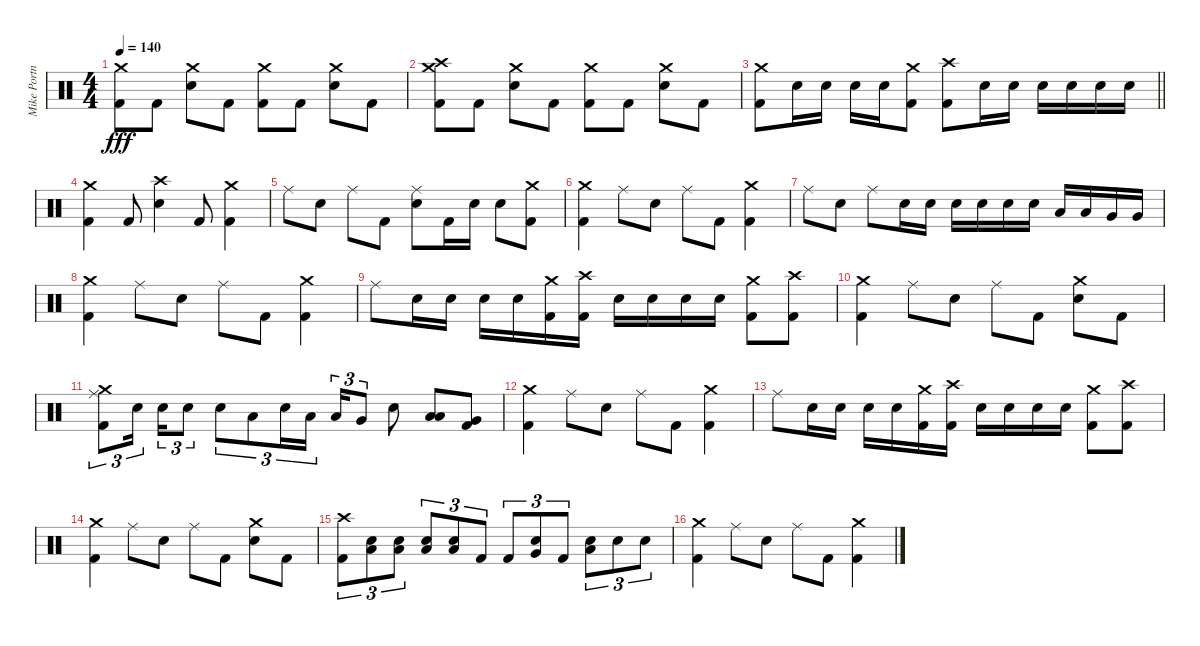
\track ("Mike Portnoy" "Mike Portn") {instrument percussion}
\staff {score}
\articulation defaults
\ts (4 4)
\tempo 140
\clef neutral
\ks c
("Crash medium (hit)" "Kick (hit) 2").8{dy fff} "Kick (hit) 2".8 ("Crash medium (hit)" "Electric Snare (hit)").8 "Kick (hit) 2".8 ("Crash medium (hit)" "Kick (hit) 2").8 "Kick (hit) 2".8 ("Crash medium (hit)" "Electric Snare (hit)").8 "Kick (hit) 2".8 |
("Crash high (hit)" "Crash medium (hit)" "Kick (hit) 2").8 "Kick (hit) 2".8 ("Crash medium (hit)" "Electric Snare (hit)").8 "Kick (hit) 2".8 ("Crash medium (hit)" "Kick (hit) 2").8 "Kick (hit) 2".8 ("Crash medium (hit)" "Electric Snare (hit)").8 "Kick (hit) 2".8 |
\barLineRight lightlight
("Crash medium (hit)" "Kick (hit) 2").8 "Electric Snare (hit)".16 "Electric Snare (hit)".16 "Electric Snare (hit)".16 "Electric Snare (hit)".16 ("Crash medium (hit)" "Kick (hit) 2").8 ("Crash high (hit)" "Kick (hit) 2").8 "Electric Snare (hit)".16 "Electric Snare (hit)".16 "Electric Snare (hit)".16 "Electric Snare (hit)".16 "Electric Snare (hit)".16 "Electric Snare (hit)".16 |
("Crash medium (hit)" "Kick (hit) 2").4 "Kick (hit) 2".8 ("Crash high (hit)" "Electric Snare (hit)").4 "Kick (hit) 2".8 ("Crash medium (hit)" "Kick (hit) 2").4 |
"Ride (middle)".8 "Electric Snare (hit)".8 "Ride (middle)".8 "Kick (hit) 2".8 ("Ride (middle)" "Electric Snare (hit)").8 "Kick (hit) 2".16 "Electric Snare (hit)".16 "Electric Snare (hit)".8 ("Crash medium (hit)" "Kick (hit) 2").8 |
("Crash medium (hit)" "Kick (hit) 2").4 "Ride (middle)".8 "Electric Snare (hit)".8 "Ride (middle)".8 "Kick (hit) 2".8 ("Crash medium (hit)" "Kick (hit) 2").4 |
"Ride (middle)".8 "Electric Snare (hit)".8 "Ride (middle)".8 "Electric Snare (hit)".16 "Electric Snare (hit)".16 "Electric Snare (hit)".16 "Electric Snare (hit)".16 "Electric Snare (hit)".16 "Electric Snare (hit)".16 "Low Tom (hit)".16 "Low Tom (hit)".16 "Very Low Tom (hit)".16 "Very Low Tom (hit)".16 |
("Crash medium (hit)" "Kick (hit) 2").4 "Ride (middle)".8 "Electric Snare (hit)".8 "Ride (middle)".8 "Kick (hit) 2".8 ("Crash medium (hit)" "Kick (hit) 2").4 |
"Ride (middle)".8 "Electric Snare (hit)".16 "Electric Snare (hit)".16 "Electric Snare (hit)".16 "Electric Snare (hit)".16 ("Crash medium (hit)" "Kick (hit) 2").16 ("Crash high (hit)" "Kick (hit) 2").16 "Electric Snare (hit)".16 "Electric Snare (hit)".16 "Electric Snare (hit)".16 "Electric Snare (hit)".16 ("Crash medium (hit)" "Kick (hit) 2").8 ("Crash high (hit)" "Kick (hit) 2").8 |
("Crash medium (hit)" "Kick (hit) 2").4 "Ride (middle)".8 "Electric Snare (hit)".8 "Ride (middle)".8 "Kick (hit) 2".8 ("Crash medium (hit)" "Electric Snare (hit)").8 "Kick (hit) 2".8 |
("Crash medium (hit)" "Ride (middle)" "Kick (hit) 2").8{tu (3 2)} "Electric Snare (hit)".16{tu (3 2) beam splitsecondary} "Electric Snare (hit)".16{tu (3 2)} "Electric Snare (hit)".8{tu (3 2)} "Electric Snare (hit)".8{tu (3 2)} "Low Tom (hit)".8{tu (3 2)} "Electric Snare (hit)".16{tu (3 2)} "Low Tom (hit)".16{tu (3 2)} "Low Tom (hit)".16{tu (3 2)} "Very Low Tom (hit)".8{tu (3 2)} "Electric Snare (hit)".8 ("Low Tom (hit)" "Low Floor Tom (hit)").8 ("Very Low Tom (hit)" "Kick (hit) 2").8 |
("Crash medium (hit)" "Kick (hit) 2").4 "Ride (middle)".8 "Electric Snare (hit)".8 "Ride (middle)".8 "Kick (hit) 2".8 ("Crash medium (hit)" "Kick (hit) 2").4 |
"Ride (middle)".8 "Electric Snare (hit)".16 "Electric Snare (hit)".16 "Electric Snare (hit)".16 "Electric Snare (hit)".16 ("Crash medium (hit)" "Kick (hit) 2").16 ("Crash high (hit)" "Kick (hit) 2").16 "Electric Snare (hit)".16 "Electric Snare (hit)".16 "Electric Snare (hit)".16 "Electric Snare (hit)".16 ("Crash medium (hit)" "Kick (hit) 2").8 ("Crash high (hit)" "Kick (hit) 2").8 |
("Crash medium (hit)" "Kick (hit) 2").4 "Ride (middle)".8 "Electric Snare (hit)".8 "Ride (middle)".8 "Kick (hit) 2".8 ("Crash medium (hit)" "Electric Snare (hit)").8 "Kick (hit) 2".8 |
("Crash high (hit)" "Kick (hit) 2").8{tu (3 2)} ("Low Floor Tom (hit)" "Electric Snare (hit)").8{tu (3 2)} ("Low Floor Tom (hit)" "Electric Snare (hit)").8{tu (3 2)} ("Low Floor Tom (hit)" "Electric Snare (hit)").8{tu (3 2)} ("Low Floor Tom (hit)" "Electric Snare (hit)").8{tu (3 2)} "Kick (hit) 2".8{tu (3 2)} "Kick (hit) 2".8{tu (3 2)} ("Very Low Tom (hit)" "Electric Snare (hit)").8{tu (3 2)} "Kick (hit) 2".8{tu (3 2)} ("Low Floor Tom (hit)" "Electric Snare (hit)").8{tu (3 2)} "Electric Snare (hit)".8{tu (3 2)} "Electric Snare (hit)".8{tu (3 2)} |
("Crash medium (hit)" "Kick (hit) 2").4 "Ride (middle)".8 "Electric Snare (hit)".8 "Ride (middle)".8 "Kick (hit) 2".8 ("Crash medium (hit)" "Kick (hit) 2").4
